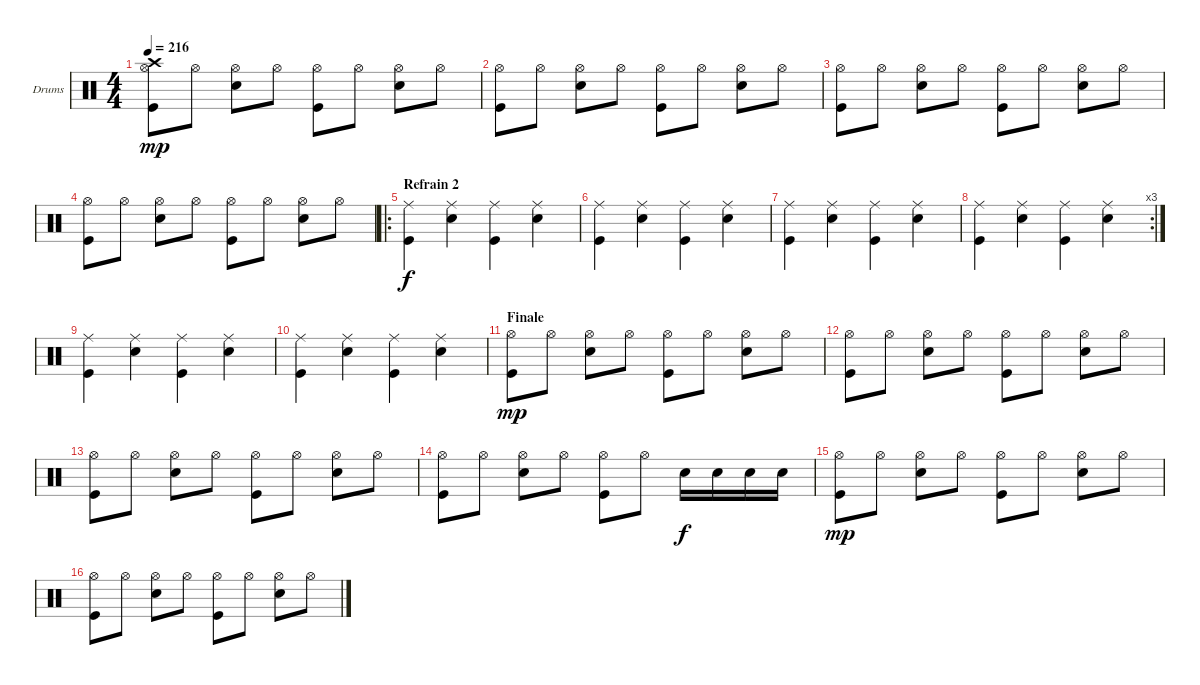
\bracketExtendMode groupsimilarinstruments
\firstSystemTrackNameOrientation horizontal
\otherSystemsTrackNameOrientation horizontal
\chordDiagramsInScore
\track ("Drumkit" "Drums") {instrument percussion}
\staff {score}
\articulation defaults
\ts (4 4)
\tempo 216
\clef neutral
\ks c
("Hi-Hat (open)" "Crash high (hit)" "Kick (hit)").8{dy mp} "Hi-Hat (open)".8 ("Hi-Hat (open)" "Snare (hit) 2").8 "Hi-Hat (open)".8 ("Hi-Hat (open)" "Kick (hit)").8 "Hi-Hat (open)".8 ("Hi-Hat (open)" "Snare (hit) 2").8 "Hi-Hat (open)".8 |
("Hi-Hat (open)" "Kick (hit)").8 "Hi-Hat (open)".8 ("Hi-Hat (open)" "Snare (hit) 2").8 "Hi-Hat (open)".8 ("Hi-Hat (open)" "Kick (hit)").8 "Hi-Hat (open)".8 ("Hi-Hat (open)" "Snare (hit) 2").8 "Hi-Hat (open)".8 |
("Hi-Hat (open)" "Kick (hit)").8 "Hi-Hat (open)".8 ("Hi-Hat (open)" "Snare (hit) 2").8 "Hi-Hat (open)".8 ("Hi-Hat (open)" "Kick (hit)").8 "Hi-Hat (open)".8 ("Hi-Hat (open)" "Snare (hit) 2").8 "Hi-Hat (open)".8 |
("Hi-Hat (open)" "Kick (hit)").8 "Hi-Hat (open)".8 ("Hi-Hat (open)" "Snare (hit) 2").8 "Hi-Hat (open)".8 ("Hi-Hat (open)" "Kick (hit)").8 "Hi-Hat (open)".8 ("Hi-Hat (open)" "Snare (hit) 2").8 "Hi-Hat (open)".8 |
\ro
\section ("" "Refrain 2")
("Ride (middle)" "Kick (hit)").4{dy f} ("Ride (middle)" "Snare (hit) 2").4 ("Ride (middle)" "Kick (hit)").4 ("Ride (middle)" "Snare (hit) 2").4 |
("Ride (middle)" "Kick (hit)").4 ("Ride (middle)" "Snare (hit) 2").4 ("Ride (middle)" "Kick (hit)").4 ("Ride (middle)" "Snare (hit) 2").4 |
("Ride (middle)" "Kick (hit)").4 ("Ride (middle)" "Snare (hit) 2").4 ("Ride (middle)" "Kick (hit)").4 ("Ride (middle)" "Snare (hit) 2").4 |
\rc 3
("Ride (middle)" "Kick (hit)").4 ("Ride (middle)" "Snare (hit) 2").4 ("Ride (middle)" "Kick (hit)").4 ("Ride (middle)" "Snare (hit) 2").4 |
("Ride (middle)" "Kick (hit)").4 ("Ride (middle)" "Snare (hit) 2").4 ("Ride (middle)" "Kick (hit)").4 ("Ride (middle)" "Snare (hit) 2").4 |
("Ride (middle)" "Kick (hit)").4 ("Ride (middle)" "Snare (hit) 2").4 ("Ride (middle)" "Kick (hit)").4 ("Ride (middle)" "Snare (hit) 2").4 |
\section ("" "Finale")
("Hi-Hat (open)" "Kick (hit)").8{dy mp} "Hi-Hat (open)".8 ("Hi-Hat (open)" "Snare (hit) 2").8 "Hi-Hat (open)".8 ("Hi-Hat (open)" "Kick (hit)").8 "Hi-Hat (open)".8 ("Hi-Hat (open)" "Snare (hit) 2").8 "Hi-Hat (open)".8 |
("Hi-Hat (open)" "Kick (hit)").8 "Hi-Hat (open)".8 ("Hi-Hat (open)" "Snare (hit) 2").8 "Hi-Hat (open)".8 ("Hi-Hat (open)" "Kick (hit)").8 "Hi-Hat (open)".8 ("Hi-Hat (open)" "Snare (hit) 2").8 "Hi-Hat (open)".8 |
("Hi-Hat (open)" "Kick (hit)").8 "Hi-Hat (open)".8 ("Hi-Hat (open)" "Snare (hit) 2").8 "Hi-Hat (open)".8 ("Hi-Hat (open)" "Kick (hit)").8 "Hi-Hat (open)".8 ("Hi-Hat (open)" "Snare (hit) 2").8 "Hi-Hat (open)".8 |
("Hi-Hat (open)" "Kick (hit)").8 "Hi-Hat (open)".8 ("Hi-Hat (open)" "Snare (hit) 2").8 "Hi-Hat (open)".8 ("Hi-Hat (open)" "Kick (hit)").8 "Hi-Hat (open)".8 "Snare (hit) 2".16{dy f} "Snare (hit) 2".16 "Snare (hit) 2".16 "Snare (hit) 2".16 |
("Hi-Hat (open)" "Kick (hit)").8{dy mp} "Hi-Hat (open)".8 ("Hi-Hat (open)" "Snare (hit) 2").8 "Hi-Hat (open)".8 ("Hi-Hat (open)" "Kick (hit)").8 "Hi-Hat (open)".8 ("Hi-Hat (open)" "Snare (hit) 2").8 "Hi-Hat (open)".8 |
("Hi-Hat (open)" "Kick (hit)").8 "Hi-Hat (open)".8 ("Hi-Hat (open)" "Snare (hit) 2").8 "Hi-Hat (open)".8 ("Hi-Hat (open)" "Kick (hit)").8 "Hi-Hat (open)".8 ("Hi-Hat (open)" "Snare (hit) 2").8 "Hi-Hat (open)".8
